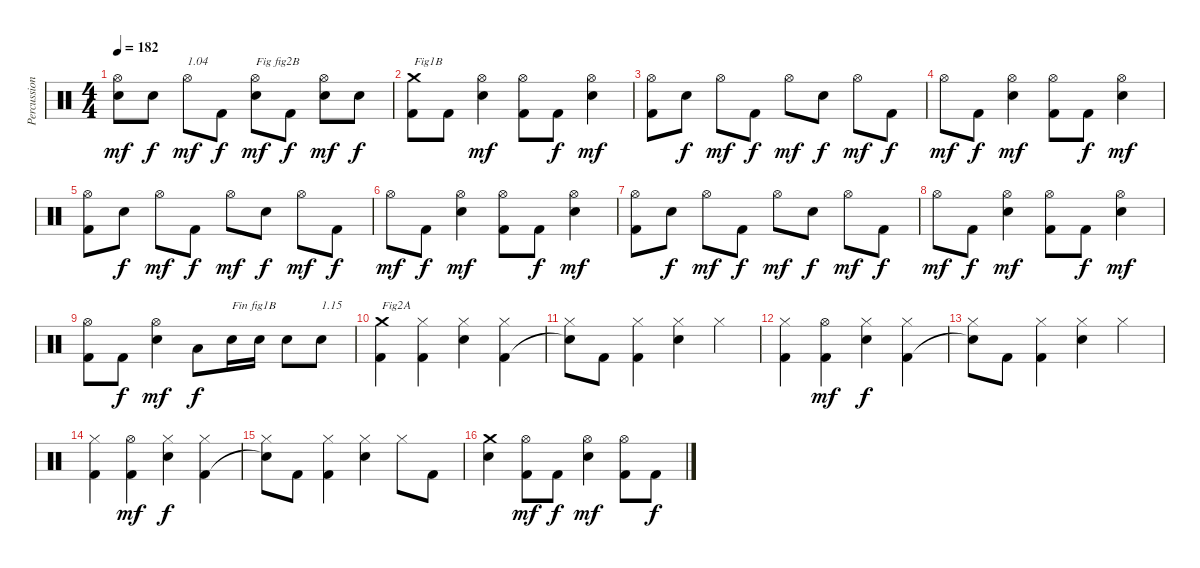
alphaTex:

\track ("Percussions" "Percussion") {instrument percussion}
\staff {score}
\articulation defaults
\ts (4 4)
\tempo 182
\clef neutral
\ks c
("Snare (hit)"{t} "Hi-Hat (open)").8{dy mf} "Electric Snare (hit)".8{dy f} "Hi-Hat (open)".8{txt "1.04" dy mf} "Kick (hit) 2".8{dy f} ("Electric Snare (hit)" "Hi-Hat (open)").8{txt "Fig fig2B" dy mf} "Kick (hit) 2".8{dy f} ("Electric Snare (hit)" "Hi-Hat (open)").8{dy mf} "Electric Snare (hit)".8{dy f} |
("Kick (hit) 2" "Crash medium (hit)").8{txt "Fig1B"} "Kick (hit) 2".8 ("Electric Snare (hit)" "Hi-Hat (open)").4{dy mf} ("Kick (hit) 2" "Hi-Hat (open)").8 "Kick (hit) 2".8{dy f} ("Electric Snare (hit)" "Hi-Hat (open)").4{dy mf} |
("Kick (hit) 2" "Hi-Hat (open)").8 "Electric Snare (hit)".8{dy f} "Hi-Hat (open)".8{dy mf} "Kick (hit) 2".8{dy f} "Hi-Hat (open)".8{dy mf} "Electric Snare (hit)".8{dy f} "Hi-Hat (open)".8{dy mf} "Kick (hit) 2".8{dy f} |
"Hi-Hat (open)".8{dy mf} "Kick (hit) 2".8{dy f} ("Electric Snare (hit)" "Hi-Hat (open)").4{dy mf} ("Kick (hit) 2" "Hi-Hat (open)").8 "Kick (hit) 2".8{dy f} ("Electric Snare (hit)" "Hi-Hat (open)").4{dy mf} |
("Kick (hit) 2" "Hi-Hat (open)").8 "Electric Snare (hit)".8{dy f} "Hi-Hat (open)".8{dy mf} "Kick (hit) 2".8{dy f} "Hi-Hat (open)".8{dy mf} "Electric Snare (hit)".8{dy f} "Hi-Hat (open)".8{dy mf} "Kick (hit) 2".8{dy f} |
"Hi-Hat (open)".8{dy mf} "Kick (hit) 2".8{dy f} ("Electric Snare (hit)" "Hi-Hat (open)").4{dy mf} ("Kick (hit) 2" "Hi-Hat (open)").8 "Kick (hit) 2".8{dy f} ("Electric Snare (hit)" "Hi-Hat (open)").4{dy mf} |
("Kick (hit) 2" "Hi-Hat (open)").8 "Electric Snare (hit)".8{dy f} "Hi-Hat (open)".8{dy mf} "Kick (hit) 2".8{dy f} "Hi-Hat (open)".8{dy mf} "Electric Snare (hit)".8{dy f} "Hi-Hat (open)".8{dy mf} "Kick (hit) 2".8{dy f} |
"Hi-Hat (open)".8{dy mf} "Kick (hit) 2".8{dy f} ("Electric Snare (hit)" "Hi-Hat (open)").4{dy mf} ("Kick (hit) 2" "Hi-Hat (open)").8 "Kick (hit) 2".8{dy f} ("Electric Snare (hit)" "Hi-Hat (open)").4{dy mf} |
("Kick (hit) 2" "Hi-Hat (open)").8 "Kick (hit) 2".8{dy f} ("Electric Snare (hit)" "Hi-Hat (open)").4{dy mf} "Low Floor Tom (hit)".8{dy f} "Electric Snare (hit)".16{txt "Fin fig1B"} "Electric Snare (hit)".16 "Electric Snare (hit)".8 "Electric Snare (hit)".8{txt "1.15"} |
("Kick (hit) 2" "Crash medium (hit)").4{txt "Fig2A"} ("Kick (hit) 2" "Hi-Hat (closed)").4 ("Electric Snare (hit)" "Hi-Hat (closed)").4 ("Kick (hit) 2" "Hi-Hat (closed)").4 |
("Snare (hit)"{t} "Hi-Hat (closed)").8 "Kick (hit) 2".8 ("Kick (hit) 2" "Hi-Hat (closed)").4 ("Electric Snare (hit)" "Hi-Hat (closed)").4 "Hi-Hat (closed)".4 |
("Kick (hit) 2" "Hi-Hat (closed)").4 ("Kick (hit) 2" "Hi-Hat (open)").4{dy mf} ("Electric Snare (hit)" "Hi-Hat (closed)").4{dy f} ("Kick (hit) 2" "Hi-Hat (closed)").4 |
("Snare (hit)"{t} "Hi-Hat (closed)").8 "Kick (hit) 2".8 ("Kick (hit) 2" "Hi-Hat (closed)").4 ("Electric Snare (hit)" "Hi-Hat (closed)").4 "Hi-Hat (closed)".4 |
("Kick (hit) 2" "Hi-Hat (closed)").4 ("Kick (hit) 2" "Hi-Hat (open)").4{dy mf} ("Electric Snare (hit)" "Hi-Hat (closed)").4{dy f} ("Kick (hit) 2" "Hi-Hat (closed)").4 |
("Snare (hit)"{t} "Hi-Hat (closed)").8 "Kick (hit) 2".8 ("Kick (hit) 2" "Hi-Hat (closed)").4 ("Electric Snare (hit)" "Hi-Hat (closed)").4 "Hi-Hat (closed)".8 "Kick (hit) 2".8 |
("Electric Snare (hit)" "Crash medium (hit)").4 ("Kick (hit) 2" "Hi-Hat (open)").8{dy mf} "Kick (hit) 2".8{dy f} ("Electric Snare (hit)" "Hi-Hat (open)").4{dy mf} ("Kick (hit) 2" "Hi-Hat (open)").8 "Kick (hit) 2".8{dy f}
